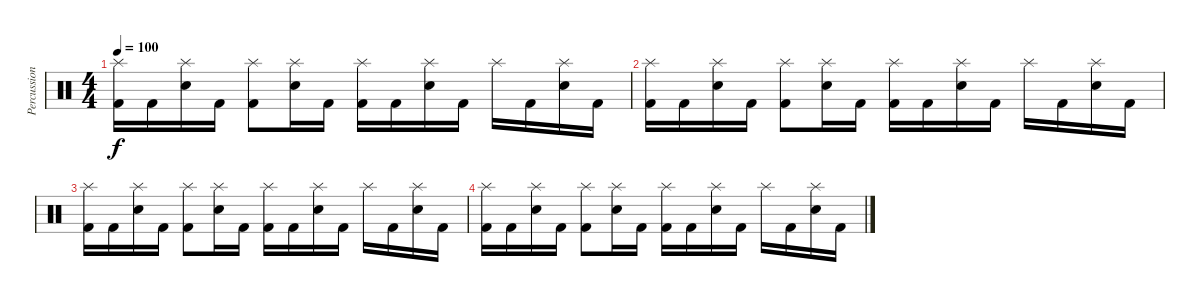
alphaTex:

\track ("Percussion" "Percussion") {instrument percussion}
\staff {score}
\articulation defaults
\ts (4 4)
\tempo 100
\clef neutral
\ks c
("Splash (hit)" "Kick (hit) 2").16{dy f} "Kick (hit) 2".16 ("Splash (hit)" "Electric Snare (hit)").16 "Kick (hit) 2".16 ("Splash (hit)" "Kick (hit) 2").8 ("Splash (hit)" "Electric Snare (hit)").16 "Kick (hit) 2".16 ("Splash (hit)" "Kick (hit) 2").16 "Kick (hit) 2".16 ("Splash (hit)" "Electric Snare (hit)").16 "Kick (hit) 2".16 "Splash (hit)".16 "Kick (hit) 2".16 ("Splash (hit)" "Electric Snare (hit)").16 "Kick (hit) 2".16 |
("Splash (hit)" "Kick (hit) 2").16 "Kick (hit) 2".16 ("Splash (hit)" "Electric Snare (hit)").16 "Kick (hit) 2".16 ("Splash (hit)" "Kick (hit) 2").8 ("Splash (hit)" "Electric Snare (hit)").16 "Kick (hit) 2".16 ("Splash (hit)" "Kick (hit) 2").16 "Kick (hit) 2".16 ("Splash (hit)" "Electric Snare (hit)").16 "Kick (hit) 2".16 "Splash (hit)".16 "Kick (hit) 2".16 ("Splash (hit)" "Electric Snare (hit)").16 "Kick (hit) 2".16 |
("Splash (hit)" "Kick (hit) 2").16 "Kick (hit) 2".16 ("Splash (hit)" "Electric Snare (hit)").16 "Kick (hit) 2".16 ("Splash (hit)" "Kick (hit) 2").8 ("Splash (hit)" "Electric Snare (hit)").16 "Kick (hit) 2".16 ("Splash (hit)" "Kick (hit) 2").16 "Kick (hit) 2".16 ("Splash (hit)" "Electric Snare (hit)").16 "Kick (hit) 2".16 "Splash (hit)".16 "Kick (hit) 2".16 ("Splash (hit)" "Electric Snare (hit)").16 "Kick (hit) 2".16 |
("Splash (hit)" "Kick (hit) 2").16 "Kick (hit) 2".16 ("Splash (hit)" "Electric Snare (hit)").16 "Kick (hit) 2".16 ("Splash (hit)" "Kick (hit) 2").8 ("Splash (hit)" "Electric Snare (hit)").16 "Kick (hit) 2".16 ("Splash (hit)" "Kick (hit) 2").16 "Kick (hit) 2".16 ("Splash (hit)" "Electric Snare (hit)").16 "Kick (hit) 2".16 "Splash (hit)".16 "Kick (hit) 2".16 ("Splash (hit)" "Electric Snare (hit)").16 "Kick (hit) 2".16
